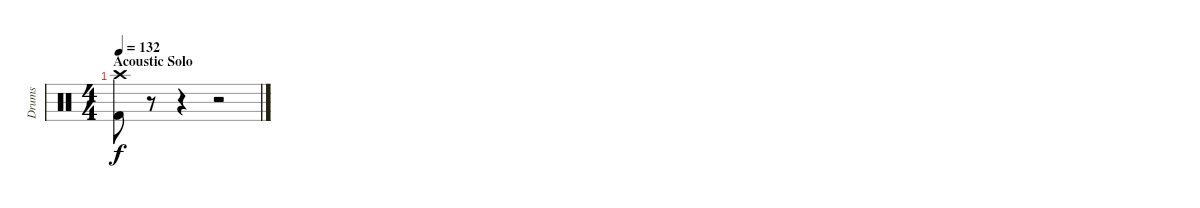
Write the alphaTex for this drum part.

\track ("Drums" "Drums") {instrument percussion}
\staff {score}
\articulation defaults
\ts (4 4)
\section ("" "Acoustic Solo")
\tempo 132
\clef neutral
\ks c
("Crash high (hit)" "Kick (hit) 2").8{dy f} r.8{volume 0} r.4 r.2
